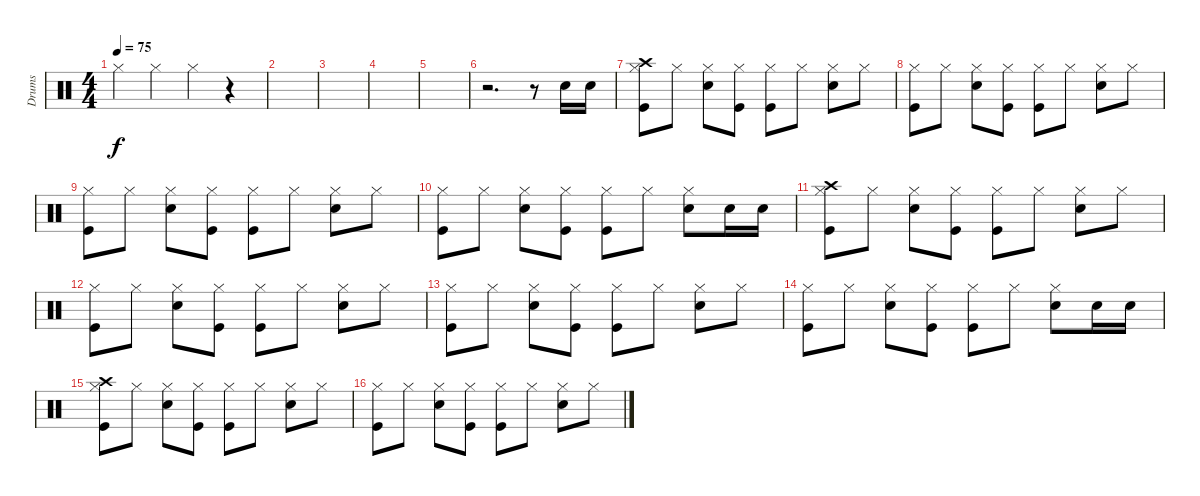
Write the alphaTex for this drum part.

\track ("Drums" "Drums") {instrument percussion}
\staff {score}
\articulation defaults
\ts (4 4)
\tempo 75
\clef neutral
\ks c "Hi-Hat (closed)".4{dy f} "Hi-Hat (closed)".4 "Hi-Hat (closed)".4
r.4 |
|
|
|
|
r.2{d} r.8 "Snare (hit) 2".16 "Snare (hit) 2".16 |
("Crash high (hit)" "Hi-Hat (closed)" "Kick (hit)").8 "Hi-Hat (closed)".8 ("Hi-Hat (closed)" "Snare (hit) 2").8 ("Hi-Hat (closed)" "Kick (hit)").8 ("Hi-Hat (closed)" "Kick (hit)").8 "Hi-Hat (closed)".8 ("Hi-Hat (closed)" "Snare (hit) 2").8 "Hi-Hat (closed)".8 |
("Hi-Hat (closed)" "Kick (hit)").8 "Hi-Hat (closed)".8 ("Hi-Hat (closed)" "Snare (hit) 2").8 ("Hi-Hat (closed)" "Kick (hit)").8 ("Hi-Hat (closed)" "Kick (hit)").8 "Hi-Hat (closed)".8 ("Hi-Hat (closed)" "Snare (hit) 2").8 "Hi-Hat (closed)".8 |
("Hi-Hat (closed)" "Kick (hit)").8 "Hi-Hat (closed)".8 ("Hi-Hat (closed)" "Snare (hit) 2").8 ("Hi-Hat (closed)" "Kick (hit)").8 ("Hi-Hat (closed)" "Kick (hit)").8 "Hi-Hat (closed)".8 ("Hi-Hat (closed)" "Snare (hit) 2").8 "Hi-Hat (closed)".8 |
("Hi-Hat (closed)" "Kick (hit)").8 "Hi-Hat (closed)".8 ("Hi-Hat (closed)" "Snare (hit) 2").8 ("Hi-Hat (closed)" "Kick (hit)").8 ("Hi-Hat (closed)" "Kick (hit)").8 "Hi-Hat (closed)".8 ("Hi-Hat (closed)" "Snare (hit) 2").8 "Snare (hit) 2".16 "Snare (hit) 2".16 |
("Crash high (hit)" "Hi-Hat (closed)" "Kick (hit)").8 "Hi-Hat (closed)".8 ("Hi-Hat (closed)" "Snare (hit) 2").8 ("Hi-Hat (closed)" "Kick (hit)").8 ("Hi-Hat (closed)" "Kick (hit)").8 "Hi-Hat (closed)".8 ("Hi-Hat (closed)" "Snare (hit) 2").8 "Hi-Hat (closed)".8 |
("Hi-Hat (closed)" "Kick (hit)").8 "Hi-Hat (closed)".8 ("Hi-Hat (closed)" "Snare (hit) 2").8 ("Hi-Hat (closed)" "Kick (hit)").8 ("Hi-Hat (closed)" "Kick (hit)").8 "Hi-Hat (closed)".8 ("Hi-Hat (closed)" "Snare (hit) 2").8 "Hi-Hat (closed)".8 |
("Hi-Hat (closed)" "Kick (hit)").8 "Hi-Hat (closed)".8 ("Hi-Hat (closed)" "Snare (hit) 2").8 ("Hi-Hat (closed)" "Kick (hit)").8 ("Hi-Hat (closed)" "Kick (hit)").8 "Hi-Hat (closed)".8 ("Hi-Hat (closed)" "Snare (hit) 2").8 "Hi-Hat (closed)".8 |
("Hi-Hat (closed)" "Kick (hit)").8 "Hi-Hat (closed)".8 ("Hi-Hat (closed)" "Snare (hit) 2").8 ("Hi-Hat (closed)" "Kick (hit)").8 ("Hi-Hat (closed)" "Kick (hit)").8 "Hi-Hat (closed)".8 ("Hi-Hat (closed)" "Snare (hit) 2").8 "Snare (hit) 2".16 "Snare (hit) 2".16 |
("Crash high (hit)" "Hi-Hat (closed)" "Kick (hit)").8 "Hi-Hat (closed)".8 ("Hi-Hat (closed)" "Snare (hit) 2").8 ("Hi-Hat (closed)" "Kick (hit)").8 ("Hi-Hat (closed)" "Kick (hit)").8 "Hi-Hat (closed)".8 ("Hi-Hat (closed)" "Snare (hit) 2").8 "Hi-Hat (closed)".8 |
("Hi-Hat (closed)" "Kick (hit)").8 "Hi-Hat (closed)".8 ("Hi-Hat (closed)" "Snare (hit) 2").8 ("Hi-Hat (closed)" "Kick (hit)").8 ("Hi-Hat (closed)" "Kick (hit)").8 "Hi-Hat (closed)".8 ("Hi-Hat (closed)" "Snare (hit) 2").8 "Hi-Hat (closed)".8
